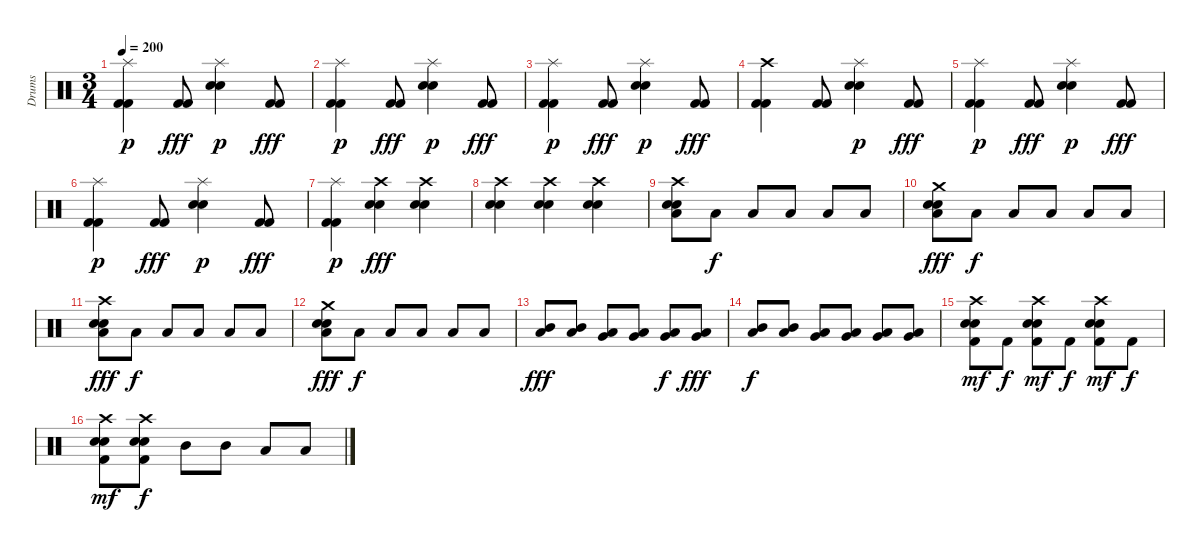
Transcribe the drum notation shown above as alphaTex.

\track ("Drums" "Drums") {instrument percussion bank 41}
\staff
\articulation defaults
\ts (3 4)
\tempo 200
\clef neutral
\ks c
("Kick (hit) 2" "Kick (hit) 2" "Splash (hit)").4{dy p} ("Kick (hit) 2" "Kick (hit) 2").8{dy fff} ("Snare (hit) 2" "Electric Snare (hit)" "Splash (hit)").4{dy p} ("Kick (hit) 2" "Kick (hit) 2").8{dy fff} |
("Kick (hit) 2" "Kick (hit) 2" "Splash (hit)").4{dy p} ("Kick (hit) 2" "Kick (hit) 2").8{dy fff} ("Snare (hit) 2" "Electric Snare (hit)" "Splash (hit)").4{dy p} ("Kick (hit) 2" "Kick (hit) 2").8{dy fff} |
("Kick (hit) 2" "Kick (hit) 2" "Splash (hit)").4{dy p} ("Kick (hit) 2" "Kick (hit) 2").8{dy fff} ("Snare (hit) 2" "Electric Snare (hit)" "Splash (hit)").4{dy p} ("Kick (hit) 2" "Kick (hit) 2").8{dy fff} |
("Kick (hit) 2" "Kick (hit) 2" "Crash high (hit)").4 ("Kick (hit) 2" "Kick (hit) 2").8 ("Snare (hit) 2" "Electric Snare (hit)" "Splash (hit)").4{dy p} ("Kick (hit) 2" "Kick (hit) 2").8{dy fff} |
("Kick (hit) 2" "Kick (hit) 2" "Splash (hit)").4{dy p} ("Kick (hit) 2" "Kick (hit) 2").8{dy fff} ("Snare (hit) 2" "Electric Snare (hit)" "Splash (hit)").4{dy p} ("Kick (hit) 2" "Kick (hit) 2").8{dy fff} |
("Kick (hit) 2" "Kick (hit) 2" "Splash (hit)").4{dy p} ("Kick (hit) 2" "Kick (hit) 2").8{dy fff} ("Snare (hit) 2" "Electric Snare (hit)" "Splash (hit)").4{dy p} ("Kick (hit) 2" "Kick (hit) 2").8{dy fff} |
("Kick (hit) 2" "Kick (hit) 2" "Splash (hit)").4{dy p} ("Crash high (hit)" "Electric Snare (hit)" "Snare (hit) 2").4{dy fff} ("Crash high (hit)" "Electric Snare (hit)" "Snare (hit) 2").4 |
("Crash high (hit)" "Electric Snare (hit)" "Snare (hit) 2").4 ("Crash high (hit)" "Electric Snare (hit)" "Snare (hit) 2").4 ("Crash high (hit)" "Electric Snare (hit)" "Snare (hit) 2").4 |
("Snare (hit) 2" "Electric Snare (hit)" "Low Floor Tom (hit)" "Crash high (hit)").8 "Low Floor Tom (hit)".8{dy f} "Low Floor Tom (hit)".8 "Low Floor Tom (hit)".8 "Low Floor Tom (hit)".8 "Low Floor Tom (hit)".8 |
("Snare (hit) 2" "Electric Snare (hit)" "Low Floor Tom (hit)" "Crash medium (hit)").8{dy fff} "Low Floor Tom (hit)".8{dy f} "Low Floor Tom (hit)".8 "Low Floor Tom (hit)".8 "Low Floor Tom (hit)".8 "Low Floor Tom (hit)".8 |
("Snare (hit) 2" "Electric Snare (hit)" "Low Floor Tom (hit)" "Crash high (hit)").8{dy fff} "Low Floor Tom (hit)".8{dy f} "Low Floor Tom (hit)".8 "Low Floor Tom (hit)".8 "Low Floor Tom (hit)".8 "Low Floor Tom (hit)".8 |
("Snare (hit) 2" "Electric Snare (hit)" "Low Floor Tom (hit)" "Crash medium (hit)").8{dy fff} "Low Floor Tom (hit)".8{dy f} "Low Floor Tom (hit)".8 "Low Floor Tom (hit)".8 "Low Floor Tom (hit)".8 "Low Floor Tom (hit)".8 |
("Mid Tom (hit)" "Low Tom (hit)").8{dy fff} ("Mid Tom (hit)" "Low Tom (hit)").8 ("Low Tom (hit)" "Very Low Tom (hit)").8 ("Low Tom (hit)" "Very Low Tom (hit)").8 ("Very Low Tom (hit)" "Low Floor Tom (hit)").8{dy f} ("Very Low Tom (hit)" "Low Floor Tom (hit)").8{dy fff} |
("Mid Tom (hit)" "Low Tom (hit)").8{dy f} ("Mid Tom (hit)" "Low Tom (hit)").8 ("Low Tom (hit)" "Very Low Tom (hit)").8 ("Low Tom (hit)" "Very Low Tom (hit)").8 ("Very Low Tom (hit)" "Low Floor Tom (hit)").8 ("Very Low Tom (hit)" "Low Floor Tom (hit)").8 |
("Kick (hit) 2" "Snare (hit) 2" "Electric Snare (hit)" "Crash high (hit)").8{dy mf} "Kick (hit) 2".8{dy f} ("Kick (hit) 2" "Snare (hit) 2" "Electric Snare (hit)" "Crash high (hit)").8{dy mf} "Kick (hit) 2".8{dy f} ("Kick (hit) 2" "Snare (hit) 2" "Snare (hit) 2" "Crash high (hit)").8{dy mf} "Kick (hit) 2".8{dy f} |
("Kick (hit) 2" "Snare (hit) 2" "Electric Snare (hit)" "Crash high (hit)").8{dy mf} ("Kick (hit) 2" "Snare (hit) 2" "Electric Snare (hit)" "Crash high (hit)").8{dy f} "Mid Tom (hit)".8 "Mid Tom (hit)".8 "Low Tom (hit)".8 "Low Tom (hit)".8
